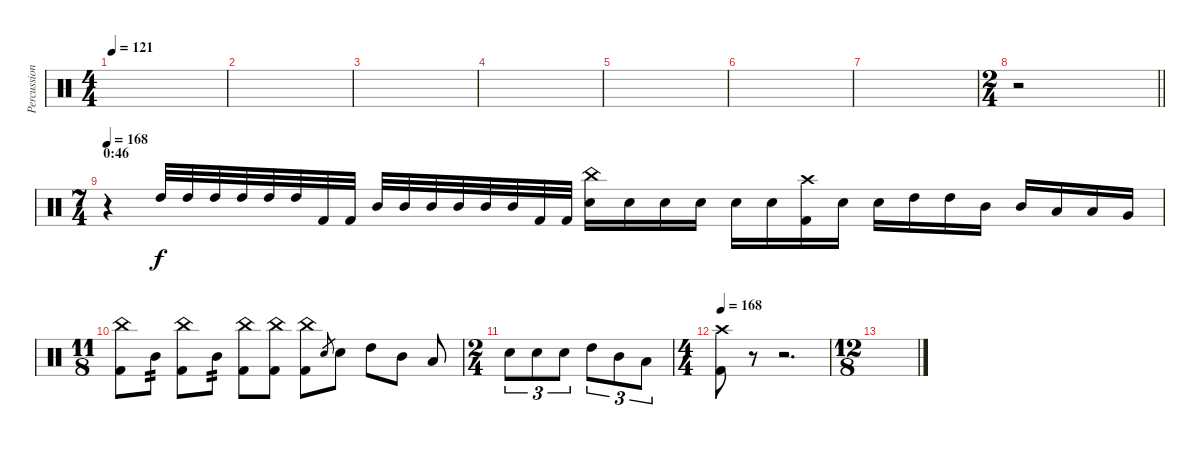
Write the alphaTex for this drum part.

\track ("Percussion" "Percussion") {instrument percussion}
\staff {score}
\articulation defaults
\ts (4 4)
\tempo 121
\clef neutral
\ks c
|
|
|
|
|
|
|
\ts (2 4)
\barLineRight lightlight
r.2 |
\ts (7 4)
\section ("" "0:46")
\tempo 168
r.4 "High Tom (hit)".32 "High Tom (hit)".32 "High Tom (hit)".32 "High Tom (hit)".32 "High Tom (hit)".32 "High Tom (hit)".32 "Kick (hit) 2".32 "Kick (hit) 2".32 "Mid Tom (hit)".32 "Mid Tom (hit)".32 "Mid Tom (hit)".32 "Mid Tom (hit)".32 "Mid Tom (hit)".32 "Mid Tom (hit)".32 "Kick (hit) 2".32 "Kick (hit) 2".32 ("China (hit)" "Electric Snare (hit)").16 "Electric Snare (hit)".16 "Electric Snare (hit)".16 "Electric Snare (hit)".16 "Electric Snare (hit)".16 "Electric Snare (hit)".16 ("Kick (hit) 2" "Crash high (hit)").16 "Electric Snare (hit)".16 "Electric Snare (hit)".16 "High Tom (hit)".16 "High Tom (hit)".16 "Mid Tom (hit)".16 "Mid Tom (hit)".16 "Low Tom (hit)".16 "Low Tom (hit)".16 "Very Low Tom (hit)".16 |
\ts (11 8)
("China (hit)" "Kick (hit) 2").8 "Mid Tom (hit)".8{tp 2} ("Kick (hit) 2" "China (hit)").8 "Mid Tom (hit)".8{tp 2} ("China (hit)" "Kick (hit) 2").8 ("China (hit)" "Kick (hit) 2").8 ("China (hit)" "Kick (hit) 2").8 "Electric Snare (hit)".8{gr} "Electric Snare (hit)".8 "High Tom (hit)".8 "Mid Tom (hit)".8 "Low Tom (hit)".8 |
\ts (2 4)
"Electric Snare (hit)".8{tu (3 2)} "Electric Snare (hit)".8{tu (3 2)} "Electric Snare (hit)".8{tu (3 2)} "High Tom (hit)".8{tu (3 2)} "Mid Tom (hit)".8{tu (3 2)} "Low Tom (hit)".8{tu (3 2)} |
\ts (4 4)
\tempo 168
("Crash high (hit)" "Kick (hit) 2").8 r.8{volume 0} r.2{d} |
\ts (12 8)
